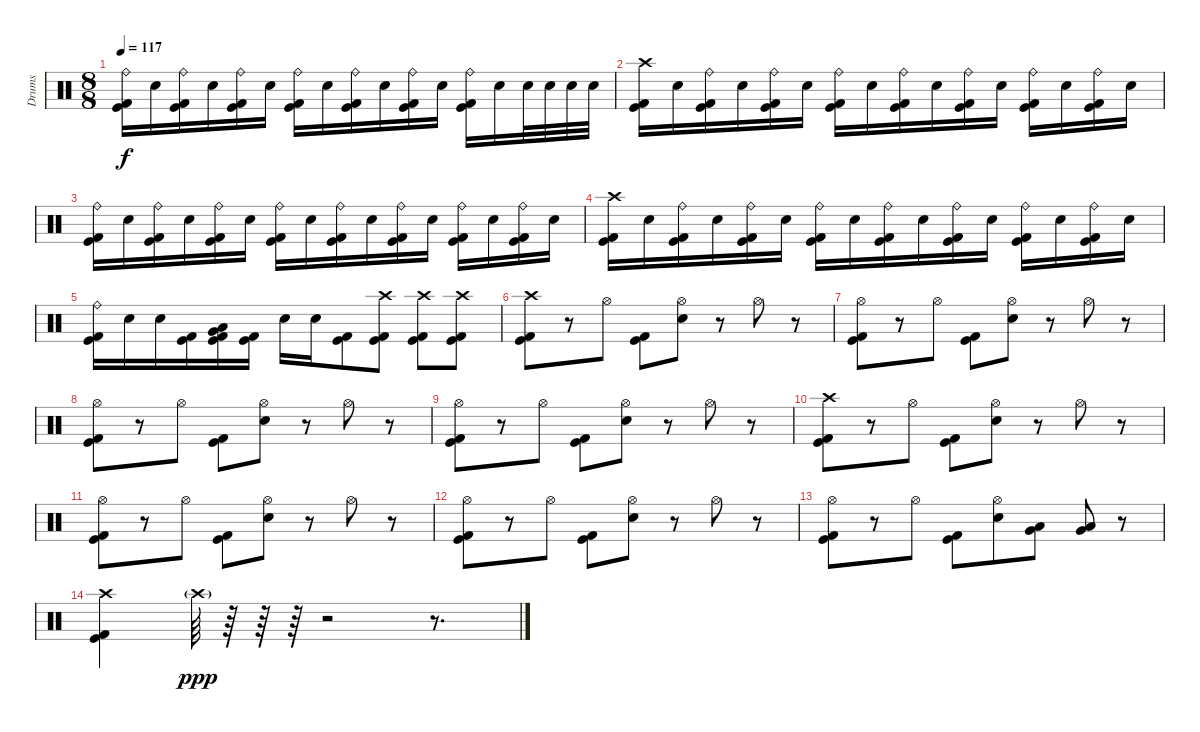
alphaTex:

\track ("Drums" "Drums") {instrument percussion}
\staff {score}
\articulation defaults
\ts (8 8)
\tempo 117
\clef neutral
\ks c
("Ride (bell)" "Kick (hit)" "Kick (hit) 2").16{dy f} "Electric Snare (hit)".16 ("Ride (bell)" "Kick (hit)" "Kick (hit) 2").16 "Electric Snare (hit)".16 ("Ride (bell)" "Kick (hit)" "Kick (hit) 2").16 "Electric Snare (hit)".16 ("Ride (bell)" "Kick (hit)" "Kick (hit) 2").16 "Electric Snare (hit)".16 ("Ride (bell)" "Kick (hit)" "Kick (hit) 2").16 "Electric Snare (hit)".16 ("Ride (bell)" "Kick (hit)" "Kick (hit) 2").16 "Electric Snare (hit)".16 ("Ride (bell)" "Kick (hit)" "Kick (hit) 2").16 "Electric Snare (hit)".16 "Electric Snare (hit)".32 "Electric Snare (hit)".32 "Electric Snare (hit)".32 "Electric Snare (hit)".32 |
("Crash high (hit)" "Kick (hit)" "Kick (hit) 2").16 "Electric Snare (hit)".16 ("Ride (bell)" "Kick (hit)" "Kick (hit) 2").16 "Electric Snare (hit)".16 ("Ride (bell)" "Kick (hit)" "Kick (hit) 2").16 "Electric Snare (hit)".16 ("Ride (bell)" "Kick (hit)" "Kick (hit) 2").16 "Electric Snare (hit)".16 ("Ride (bell)" "Kick (hit)" "Kick (hit) 2").16 "Electric Snare (hit)".16 ("Ride (bell)" "Kick (hit)" "Kick (hit) 2").16 "Electric Snare (hit)".16 ("Ride (bell)" "Kick (hit)" "Kick (hit) 2").16 "Electric Snare (hit)".16 ("Ride (bell)" "Kick (hit)" "Kick (hit) 2").16 "Electric Snare (hit)".16 |
("Ride (bell)" "Kick (hit)" "Kick (hit) 2").16 "Electric Snare (hit)".16 ("Ride (bell)" "Kick (hit)" "Kick (hit) 2").16 "Electric Snare (hit)".16 ("Ride (bell)" "Kick (hit)" "Kick (hit) 2").16 "Electric Snare (hit)".16 ("Ride (bell)" "Kick (hit)" "Kick (hit) 2").16 "Electric Snare (hit)".16 ("Ride (bell)" "Kick (hit)" "Kick (hit) 2").16 "Electric Snare (hit)".16 ("Ride (bell)" "Kick (hit)" "Kick (hit) 2").16 "Electric Snare (hit)".16 ("Ride (bell)" "Kick (hit)" "Kick (hit) 2").16 "Electric Snare (hit)".16 ("Ride (bell)" "Kick (hit)" "Kick (hit) 2").16 "Electric Snare (hit)".16 |
("Crash high (hit)" "Kick (hit)" "Kick (hit) 2").16 "Electric Snare (hit)".16 ("Ride (bell)" "Kick (hit)" "Kick (hit) 2").16 "Electric Snare (hit)".16 ("Ride (bell)" "Kick (hit)" "Kick (hit) 2").16 "Electric Snare (hit)".16 ("Ride (bell)" "Kick (hit)" "Kick (hit) 2").16 "Electric Snare (hit)".16 ("Ride (bell)" "Kick (hit)" "Kick (hit) 2").16 "Electric Snare (hit)".16 ("Ride (bell)" "Kick (hit)" "Kick (hit) 2").16 "Electric Snare (hit)".16 ("Ride (bell)" "Kick (hit)" "Kick (hit) 2").16 "Electric Snare (hit)".16 ("Ride (bell)" "Kick (hit)" "Kick (hit) 2").16 "Electric Snare (hit)".16 |
("Ride (bell)" "Kick (hit)" "Kick (hit) 2").16 "Electric Snare (hit)".16 "Electric Snare (hit)".16 ("Kick (hit)" "Kick (hit) 2").16 ("Very Low Tom (hit)" "Low Tom (hit)" "Kick (hit)" "Kick (hit) 2").16 ("Kick (hit)" "Kick (hit) 2").16 "Electric Snare (hit)".16 "Electric Snare (hit)".16 ("Kick (hit)" "Kick (hit) 2").8 ("Crash high (hit)" "Kick (hit)" "Kick (hit) 2").8 ("Crash high (hit)" "Kick (hit)" "Kick (hit) 2").8 ("Crash high (hit)" "Kick (hit)" "Kick (hit) 2").8 |
("Crash high (hit)" "Kick (hit)" "Kick (hit) 2").8 r.8 "Hi-Hat (open)".8 ("Kick (hit)" "Kick (hit) 2").8 ("Hi-Hat (open)" "Electric Snare (hit)").8 r.8 "Hi-Hat (open)".8 r.8 |
("Hi-Hat (open)" "Kick (hit)" "Kick (hit) 2").8 r.8 "Hi-Hat (open)".8 ("Kick (hit)" "Kick (hit) 2").8 ("Hi-Hat (open)" "Electric Snare (hit)").8 r.8 "Hi-Hat (open)".8 r.8 |
("Hi-Hat (open)" "Kick (hit)" "Kick (hit) 2").8 r.8 "Hi-Hat (open)".8 ("Kick (hit)" "Kick (hit) 2").8 ("Hi-Hat (open)" "Electric Snare (hit)").8 r.8 "Hi-Hat (open)".8 r.8 |
("Hi-Hat (open)" "Kick (hit)" "Kick (hit) 2").8 r.8 "Hi-Hat (open)".8 ("Kick (hit)" "Kick (hit) 2").8 ("Hi-Hat (open)" "Electric Snare (hit)").8 r.8 "Hi-Hat (open)".8 r.8 |
("Crash high (hit)" "Kick (hit)" "Kick (hit) 2").8 r.8 "Hi-Hat (open)".8 ("Kick (hit)" "Kick (hit) 2").8 ("Hi-Hat (open)" "Electric Snare (hit)").8 r.8 "Hi-Hat (open)".8 r.8 |
("Hi-Hat (open)" "Kick (hit)" "Kick (hit) 2").8 r.8 "Hi-Hat (open)".8 ("Kick (hit)" "Kick (hit) 2").8 ("Hi-Hat (open)" "Electric Snare (hit)").8 r.8 "Hi-Hat (open)".8 r.8 |
("Hi-Hat (open)" "Kick (hit)" "Kick (hit) 2").8 r.8 "Hi-Hat (open)".8 ("Kick (hit)" "Kick (hit) 2").8 ("Hi-Hat (open)" "Electric Snare (hit)").8 r.8 "Hi-Hat (open)".8 r.8 |
("Hi-Hat (open)" "Kick (hit)" "Kick (hit) 2").8 r.8 "Hi-Hat (open)".8 ("Kick (hit)" "Kick (hit) 2").8 ("Hi-Hat (open)" "Electric Snare (hit)").8 ("Very Low Tom (hit)" "Low Tom (hit)").8 ("Very Low Tom (hit)" "Low Tom (hit)").8 r.8 |
("Crash high (hit)" "Kick (hit)" "Kick (hit) 2").4 "Crash high (hit)"{g}.64{dy ppp} r.64 r.64 r.64 r.2 r.8{d}
